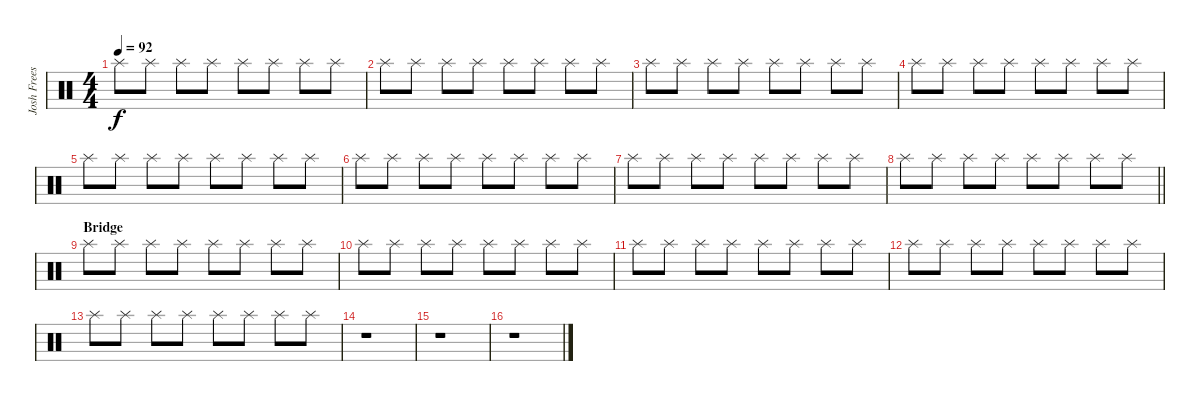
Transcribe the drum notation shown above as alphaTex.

\track ("Josh Freese (Studio Drummer)" "Josh Frees") {instrument percussion}
\staff {score}
\articulation defaults
\ts (4 4)
\tempo 92
\clef neutral
\ks c "Splash (hit)".8{dy f} "Splash (hit)".8 "Splash (hit)".8 "Splash (hit)".8 "Splash (hit)".8 "Splash (hit)".8 "Splash (hit)".8 "Splash (hit)".8
|
"Splash (hit)".8 "Splash (hit)".8 "Splash (hit)".8 "Splash (hit)".8 "Splash (hit)".8 "Splash (hit)".8 "Splash (hit)".8 "Splash (hit)".8 |
"Splash (hit)".8 "Splash (hit)".8 "Splash (hit)".8 "Splash (hit)".8 "Splash (hit)".8 "Splash (hit)".8 "Splash (hit)".8 "Splash (hit)".8 |
"Splash (hit)".8 "Splash (hit)".8 "Splash (hit)".8 "Splash (hit)".8 "Splash (hit)".8 "Splash (hit)".8 "Splash (hit)".8 "Splash (hit)".8 |
"Splash (hit)".8 "Splash (hit)".8 "Splash (hit)".8 "Splash (hit)".8 "Splash (hit)".8 "Splash (hit)".8 "Splash (hit)".8 "Splash (hit)".8 |
"Splash (hit)".8 "Splash (hit)".8 "Splash (hit)".8 "Splash (hit)".8 "Splash (hit)".8 "Splash (hit)".8 "Splash (hit)".8 "Splash (hit)".8 |
"Splash (hit)".8 "Splash (hit)".8 "Splash (hit)".8 "Splash (hit)".8 "Splash (hit)".8 "Splash (hit)".8 "Splash (hit)".8 "Splash (hit)".8 |
\barLineRight lightlight "Splash (hit)".8 "Splash (hit)".8 "Splash (hit)".8 "Splash (hit)".8 "Splash (hit)".8 "Splash (hit)".8 "Splash (hit)".8 "Splash (hit)".8
|
\section ("" "Bridge")
"Splash (hit)".8 "Splash (hit)".8 "Splash (hit)".8 "Splash (hit)".8 "Splash (hit)".8 "Splash (hit)".8 "Splash (hit)".8 "Splash (hit)".8 |
"Splash (hit)".8 "Splash (hit)".8 "Splash (hit)".8 "Splash (hit)".8 "Splash (hit)".8 "Splash (hit)".8 "Splash (hit)".8 "Splash (hit)".8 |
"Splash (hit)".8 "Splash (hit)".8 "Splash (hit)".8 "Splash (hit)".8 "Splash (hit)".8 "Splash (hit)".8 "Splash (hit)".8 "Splash (hit)".8 |
"Splash (hit)".8 "Splash (hit)".8 "Splash (hit)".8 "Splash (hit)".8 "Splash (hit)".8 "Splash (hit)".8 "Splash (hit)".8 "Splash (hit)".8 |
"Splash (hit)".8 "Splash (hit)".8 "Splash (hit)".8 "Splash (hit)".8 "Splash (hit)".8 "Splash (hit)".8 "Splash (hit)".8 "Splash (hit)".8 |
r.1 |
r.1 |
r.1
